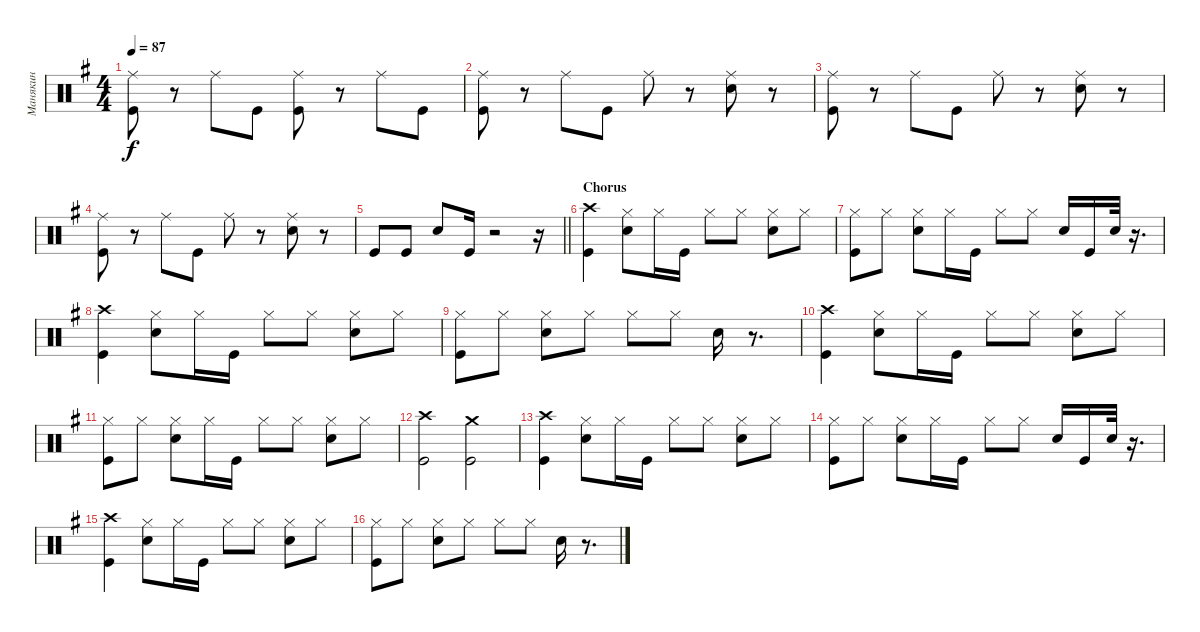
\track ("Манякин" "Манякин") {instrument percussion}
\staff {score}
\articulation defaults
\ts (4 4)
\tempo 87
\clef neutral
\ks g
("Kick (hit)" "Ride (middle)").8{dy f} r.8 "Ride (middle)".8 "Kick (hit)".8 ("Ride (middle)" "Kick (hit)").8 r.8 "Ride (middle)".8 "Kick (hit)".8 |
("Ride (middle)" "Kick (hit)").8 r.8 "Ride (middle)".8 "Kick (hit)".8 "Ride (middle)".8 r.8 ("Electric Snare (hit)" "Ride (middle)").8 r.8 |
("Ride (middle)" "Kick (hit)").8 r.8 "Ride (middle)".8 "Kick (hit)".8 "Ride (middle)".8 r.8 ("Electric Snare (hit)" "Ride (middle)").8 r.8 |
("Kick (hit)" "Ride (middle)").8 r.8 "Ride (middle)".8 "Kick (hit)".8 "Ride (middle)".8 r.8 ("Ride (middle)" "Electric Snare (hit)").8 r.8 |
\barLineRight lightlight "Kick (hit)".8 "Kick (hit)".8 "Electric Snare (hit)".8 "Kick (hit)".16
r.2 r.16 |
\section ("" "Chorus")
("Crash high (hit)" "Kick (hit)").4 ("Electric Snare (hit)" "Hi-Hat (closed)").8 "Hi-Hat (closed)".16 "Kick (hit)".16 "Hi-Hat (closed)".8 "Hi-Hat (closed)".8 ("Electric Snare (hit)" "Hi-Hat (closed)").8 "Hi-Hat (closed)".8 |
("Kick (hit)" "Hi-Hat (closed)").8 "Hi-Hat (closed)".8 ("Hi-Hat (closed)" "Electric Snare (hit)").8 "Hi-Hat (closed)".16 "Kick (hit)".16 "Hi-Hat (closed)".8 "Hi-Hat (closed)".8 "Electric Snare (hit)".16 "Kick (hit)".16 "Electric Snare (hit)".32 r.16{d} |
("Crash high (hit)" "Kick (hit)").4 ("Electric Snare (hit)" "Hi-Hat (closed)").8 "Hi-Hat (closed)".16 "Kick (hit)".16 "Hi-Hat (closed)".8 "Hi-Hat (closed)".8 ("Hi-Hat (closed)" "Electric Snare (hit)").8 "Hi-Hat (closed)".8 |
("Hi-Hat (closed)" "Kick (hit)").8 "Hi-Hat (closed)".8 ("Hi-Hat (closed)" "Electric Snare (hit)").8 "Hi-Hat (closed)".8 "Hi-Hat (closed)".8 "Hi-Hat (closed)".8 "Electric Snare (hit)".16 r.8{d} |
("Kick (hit)" "Crash high (hit)").4 ("Electric Snare (hit)" "Hi-Hat (closed)").8 "Hi-Hat (closed)".16 "Kick (hit)".16 "Hi-Hat (closed)".8 "Hi-Hat (closed)".8 ("Hi-Hat (closed)" "Electric Snare (hit)").8 "Hi-Hat (closed)".8 |
("Kick (hit)" "Hi-Hat (closed)").8 "Hi-Hat (closed)".8 ("Hi-Hat (closed)" "Electric Snare (hit)").8 "Hi-Hat (closed)".16 "Kick (hit)".16 "Hi-Hat (closed)".8 "Hi-Hat (closed)".8 ("Electric Snare (hit)" "Hi-Hat (closed)").8 "Hi-Hat (closed)".8 |
("Kick (hit)" "Crash high (hit)").2 ("Crash medium (hit)" "Kick (hit)").2 |
("Kick (hit)" "Crash high (hit)").4 ("Hi-Hat (closed)" "Electric Snare (hit)").8 "Hi-Hat (closed)".16 "Kick (hit)".16 "Hi-Hat (closed)".8 "Hi-Hat (closed)".8 ("Electric Snare (hit)" "Hi-Hat (closed)").8 "Hi-Hat (closed)".8 |
("Kick (hit)" "Hi-Hat (closed)").8 "Hi-Hat (closed)".8 ("Hi-Hat (closed)" "Electric Snare (hit)").8 "Hi-Hat (closed)".16 "Kick (hit)".16 "Hi-Hat (closed)".8 "Hi-Hat (closed)".8 "Electric Snare (hit)".16 "Kick (hit)".16 "Electric Snare (hit)".32 r.16{d} |
("Crash high (hit)" "Kick (hit)").4 ("Electric Snare (hit)" "Hi-Hat (closed)").8 "Hi-Hat (closed)".16 "Kick (hit)".16 "Hi-Hat (closed)".8 "Hi-Hat (closed)".8 ("Hi-Hat (closed)" "Electric Snare (hit)").8 "Hi-Hat (closed)".8 |
("Hi-Hat (closed)" "Kick (hit)").8 "Hi-Hat (closed)".8 ("Hi-Hat (closed)" "Electric Snare (hit)").8 "Hi-Hat (closed)".8 "Hi-Hat (closed)".8 "Hi-Hat (closed)".8 "Electric Snare (hit)".16 r.8{d}
